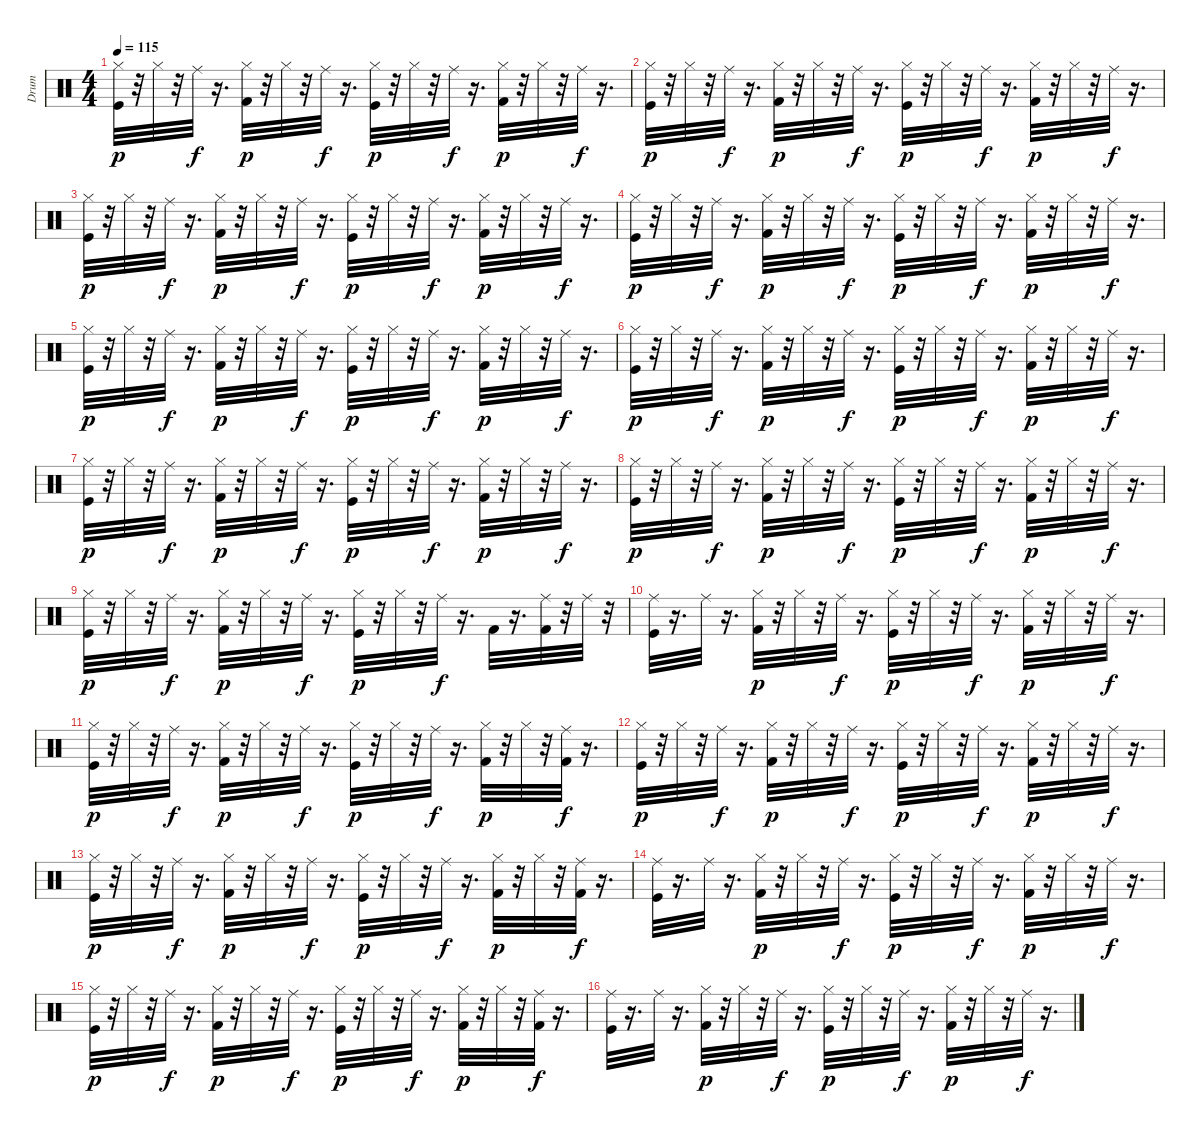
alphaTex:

\track ("Drum" "Drum") {instrument percussion}
\staff {score}
\articulation defaults
\ts (4 4)
\tempo 115
\clef neutral
\ks c
("Hi-Hat (closed)" "Kick (hit)").32{dy p} r.32 "Hi-Hat (closed)".32 r.32 "Ride (middle)".32{dy f} r.16{d} ("Hi-Hat (closed)" "Kick (hit) 2").32{dy p} r.32 "Hi-Hat (closed)".32 r.32 "Ride (middle)".32{dy f} r.16{d} ("Hi-Hat (closed)" "Kick (hit)").32{dy p} r.32 "Hi-Hat (closed)".32 r.32 "Ride (middle)".32{dy f} r.16{d} ("Hi-Hat (closed)" "Kick (hit) 2").32{dy p} r.32 "Hi-Hat (closed)".32 r.32 "Ride (middle)".32{dy f} r.16{d} |
("Hi-Hat (closed)" "Kick (hit)").32{dy p} r.32 "Hi-Hat (closed)".32 r.32 "Ride (middle)".32{dy f} r.16{d} ("Hi-Hat (closed)" "Kick (hit) 2").32{dy p} r.32 "Hi-Hat (closed)".32 r.32 "Ride (middle)".32{dy f} r.16{d} ("Hi-Hat (closed)" "Kick (hit)").32{dy p} r.32 "Hi-Hat (closed)".32 r.32 "Ride (middle)".32{dy f} r.16{d} ("Hi-Hat (closed)" "Kick (hit) 2").32{dy p} r.32 "Hi-Hat (closed)".32 r.32 "Ride (middle)".32{dy f} r.16{d} |
("Hi-Hat (closed)" "Kick (hit)").32{dy p} r.32 "Hi-Hat (closed)".32 r.32 "Ride (middle)".32{dy f} r.16{d} ("Hi-Hat (closed)" "Kick (hit) 2").32{dy p} r.32 "Hi-Hat (closed)".32 r.32 "Ride (middle)".32{dy f} r.16{d} ("Hi-Hat (closed)" "Kick (hit)").32{dy p} r.32 "Hi-Hat (closed)".32 r.32 "Ride (middle)".32{dy f} r.16{d} ("Hi-Hat (closed)" "Kick (hit) 2").32{dy p} r.32 "Hi-Hat (closed)".32 r.32 "Ride (middle)".32{dy f} r.16{d} |
("Hi-Hat (closed)" "Kick (hit)").32{dy p} r.32 "Hi-Hat (closed)".32 r.32 "Ride (middle)".32{dy f} r.16{d} ("Hi-Hat (closed)" "Kick (hit) 2").32{dy p} r.32 "Hi-Hat (closed)".32 r.32 "Ride (middle)".32{dy f} r.16{d} ("Hi-Hat (closed)" "Kick (hit)").32{dy p} r.32 "Hi-Hat (closed)".32 r.32 "Ride (middle)".32{dy f} r.16{d} ("Hi-Hat (closed)" "Kick (hit) 2").32{dy p} r.32 "Hi-Hat (closed)".32 r.32 "Ride (middle)".32{dy f} r.16{d} |
("Hi-Hat (closed)" "Kick (hit)").32{dy p} r.32 "Hi-Hat (closed)".32 r.32 "Ride (middle)".32{dy f} r.16{d} ("Hi-Hat (closed)" "Kick (hit) 2").32{dy p} r.32 "Hi-Hat (closed)".32 r.32 "Ride (middle)".32{dy f} r.16{d} ("Hi-Hat (closed)" "Kick (hit)").32{dy p} r.32 "Hi-Hat (closed)".32 r.32 "Ride (middle)".32{dy f} r.16{d} ("Hi-Hat (closed)" "Kick (hit) 2").32{dy p} r.32 "Hi-Hat (closed)".32 r.32 "Ride (middle)".32{dy f} r.16{d} |
("Hi-Hat (closed)" "Kick (hit)").32{dy p} r.32 "Hi-Hat (closed)".32 r.32 "Ride (middle)".32{dy f} r.16{d} ("Hi-Hat (closed)" "Kick (hit) 2").32{dy p} r.32 "Hi-Hat (closed)".32 r.32 "Ride (middle)".32{dy f} r.16{d} ("Hi-Hat (closed)" "Kick (hit)").32{dy p} r.32 "Hi-Hat (closed)".32 r.32 "Ride (middle)".32{dy f} r.16{d} ("Hi-Hat (closed)" "Kick (hit) 2").32{dy p} r.32 "Hi-Hat (closed)".32 r.32 "Ride (middle)".32{dy f} r.16{d} |
("Hi-Hat (closed)" "Kick (hit)").32{dy p} r.32 "Hi-Hat (closed)".32 r.32 "Ride (middle)".32{dy f} r.16{d} ("Hi-Hat (closed)" "Kick (hit) 2").32{dy p} r.32 "Hi-Hat (closed)".32 r.32 "Ride (middle)".32{dy f} r.16{d} ("Hi-Hat (closed)" "Kick (hit)").32{dy p} r.32 "Hi-Hat (closed)".32 r.32 "Ride (middle)".32{dy f} r.16{d} ("Hi-Hat (closed)" "Kick (hit) 2").32{dy p} r.32 "Hi-Hat (closed)".32 r.32 "Ride (middle)".32{dy f} r.16{d} |
("Hi-Hat (closed)" "Kick (hit)").32{dy p} r.32 "Hi-Hat (closed)".32 r.32 "Ride (middle)".32{dy f} r.16{d} ("Hi-Hat (closed)" "Kick (hit) 2").32{dy p} r.32 "Hi-Hat (closed)".32 r.32 "Ride (middle)".32{dy f} r.16{d} ("Hi-Hat (closed)" "Kick (hit)").32{dy p} r.32 "Hi-Hat (closed)".32 r.32 "Ride (middle)".32{dy f} r.16{d} ("Hi-Hat (closed)" "Kick (hit) 2").32{dy p} r.32 "Hi-Hat (closed)".32 r.32 "Ride (middle)".32{dy f} r.16{d} |
("Hi-Hat (closed)" "Kick (hit)").32{dy p} r.32 "Hi-Hat (closed)".32 r.32 "Ride (middle)".32{dy f} r.16{d} ("Hi-Hat (closed)" "Kick (hit) 2").32{dy p} r.32 "Hi-Hat (closed)".32 r.32 "Ride (middle)".32{dy f} r.16{d} ("Hi-Hat (closed)" "Kick (hit)").32{dy p} r.32 "Hi-Hat (closed)".32 r.32 "Ride (middle)".32{dy f} r.16{d} "Kick (hit) 2".32 r.16{d} ("Ride (middle)" "Kick (hit) 2").32 r.32 "Ride (middle)".32 r.32 |
("Ride (middle)" "Kick (hit)").32 r.16{d} "Ride (middle)".32 r.16{d} ("Hi-Hat (closed)" "Kick (hit) 2").32{dy p} r.32 "Hi-Hat (closed)".32 r.32 "Ride (middle)".32{dy f} r.16{d} ("Hi-Hat (closed)" "Kick (hit)").32{dy p} r.32 "Hi-Hat (closed)".32 r.32 "Ride (middle)".32{dy f} r.16{d} ("Hi-Hat (closed)" "Kick (hit) 2").32{dy p} r.32 "Hi-Hat (closed)".32 r.32 "Ride (middle)".32{dy f} r.16{d} |
("Hi-Hat (closed)" "Kick (hit)").32{dy p} r.32 "Hi-Hat (closed)".32 r.32 "Ride (middle)".32{dy f} r.16{d} ("Hi-Hat (closed)" "Kick (hit) 2").32{dy p} r.32 "Hi-Hat (closed)".32 r.32 "Ride (middle)".32{dy f} r.16{d} ("Hi-Hat (closed)" "Kick (hit)").32{dy p} r.32 "Hi-Hat (closed)".32 r.32 "Ride (middle)".32{dy f} r.16{d} ("Kick (hit) 2" "Hi-Hat (closed)").32{dy p} r.32 "Hi-Hat (closed)".32 r.32 ("Kick (hit) 2" "Ride (middle)").32{dy f} r.16{d} |
("Hi-Hat (closed)" "Kick (hit)").32{dy p} r.32 "Hi-Hat (closed)".32 r.32 "Ride (middle)".32{dy f} r.16{d} ("Hi-Hat (closed)" "Kick (hit) 2").32{dy p} r.32 "Hi-Hat (closed)".32 r.32 "Ride (middle)".32{dy f} r.16{d} ("Hi-Hat (closed)" "Kick (hit)").32{dy p} r.32 "Hi-Hat (closed)".32 r.32 "Ride (middle)".32{dy f} r.16{d} ("Hi-Hat (closed)" "Kick (hit) 2").32{dy p} r.32 "Hi-Hat (closed)".32 r.32 "Ride (middle)".32{dy f} r.16{d} |
("Hi-Hat (closed)" "Kick (hit)").32{dy p} r.32 "Hi-Hat (closed)".32 r.32 "Ride (middle)".32{dy f} r.16{d} ("Hi-Hat (closed)" "Kick (hit) 2").32{dy p} r.32 "Hi-Hat (closed)".32 r.32 "Ride (middle)".32{dy f} r.16{d} ("Hi-Hat (closed)" "Kick (hit)").32{dy p} r.32 "Hi-Hat (closed)".32 r.32 "Ride (middle)".32{dy f} r.16{d} ("Kick (hit) 2" "Hi-Hat (closed)").32{dy p} r.32 "Hi-Hat (closed)".32 r.32 ("Kick (hit) 2" "Ride (middle)").32{dy f} r.16{d} |
("Ride (middle)" "Kick (hit)").32 r.16{d} "Ride (middle)".32 r.16{d} ("Hi-Hat (closed)" "Kick (hit) 2").32{dy p} r.32 "Hi-Hat (closed)".32 r.32 "Ride (middle)".32{dy f} r.16{d} ("Hi-Hat (closed)" "Kick (hit)").32{dy p} r.32 "Hi-Hat (closed)".32 r.32 "Ride (middle)".32{dy f} r.16{d} ("Hi-Hat (closed)" "Kick (hit) 2").32{dy p} r.32 "Hi-Hat (closed)".32 r.32 "Ride (middle)".32{dy f} r.16{d} |
("Hi-Hat (closed)" "Kick (hit)").32{dy p} r.32 "Hi-Hat (closed)".32 r.32 "Ride (middle)".32{dy f} r.16{d} ("Hi-Hat (closed)" "Kick (hit) 2").32{dy p} r.32 "Hi-Hat (closed)".32 r.32 "Ride (middle)".32{dy f} r.16{d} ("Hi-Hat (closed)" "Kick (hit)").32{dy p} r.32 "Hi-Hat (closed)".32 r.32 "Ride (middle)".32{dy f} r.16{d} ("Kick (hit) 2" "Hi-Hat (closed)").32{dy p} r.32 "Hi-Hat (closed)".32 r.32 ("Kick (hit) 2" "Ride (middle)").32{dy f} r.16{d} |
("Ride (middle)" "Kick (hit)").32 r.16{d} "Ride (middle)".32 r.16{d} ("Hi-Hat (closed)" "Kick (hit) 2").32{dy p} r.32 "Hi-Hat (closed)".32 r.32 "Ride (middle)".32{dy f} r.16{d} ("Hi-Hat (closed)" "Kick (hit)").32{dy p} r.32 "Hi-Hat (closed)".32 r.32 "Ride (middle)".32{dy f} r.16{d} ("Hi-Hat (closed)" "Kick (hit) 2").32{dy p} r.32 "Hi-Hat (closed)".32 r.32 "Ride (middle)".32{dy f} r.16{d}
